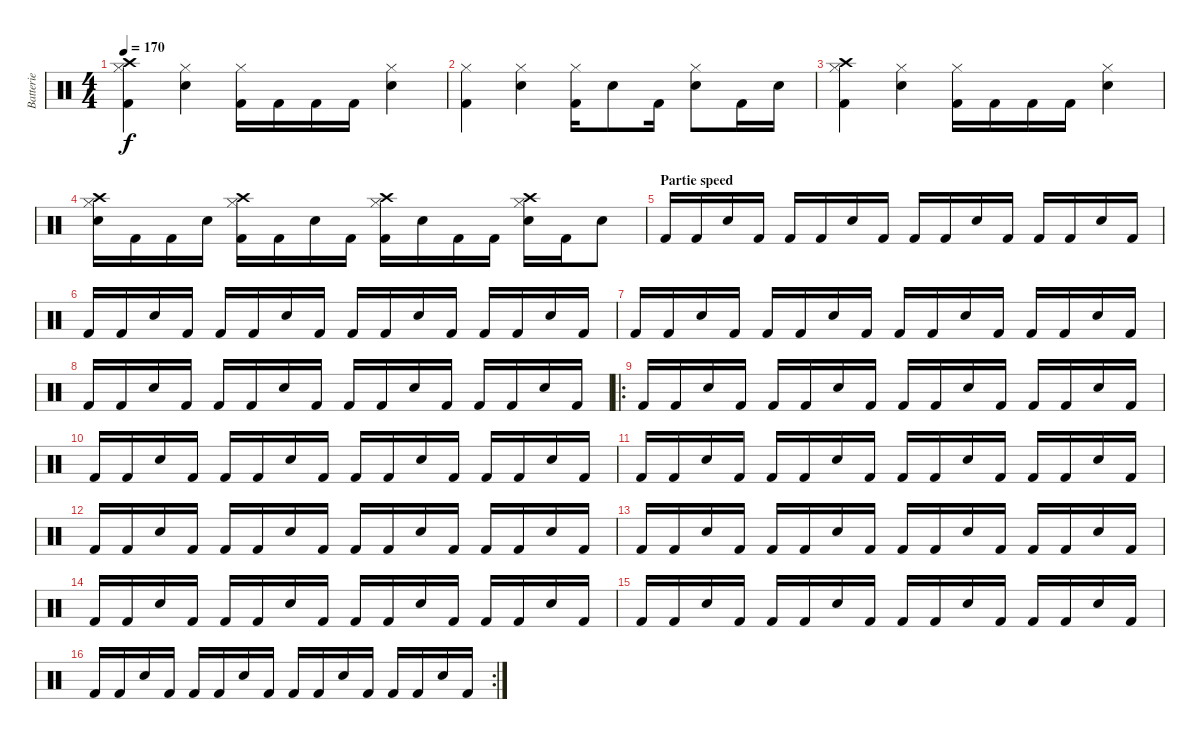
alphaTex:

\track ("Batterie" "Batterie") {instrument percussion}
\staff {score}
\articulation defaults
\ts (4 4)
\tempo 170
\clef neutral
\ks c
("Crash high (hit)" "Hi-Hat (closed)" "Kick (hit) 2").4{dy f} ("Hi-Hat (closed)" "Snare (hit) 2").4 ("Hi-Hat (closed)" "Kick (hit) 2").16 "Kick (hit) 2".16 "Kick (hit) 2".16 "Kick (hit) 2".16 ("Hi-Hat (closed)" "Snare (hit) 2").4 |
("Hi-Hat (closed)" "Kick (hit) 2").4 ("Hi-Hat (closed)" "Snare (hit) 2").4 ("Hi-Hat (closed)" "Kick (hit) 2").16 "Snare (hit) 2".8 "Kick (hit) 2".16 ("Hi-Hat (closed)" "Snare (hit) 2").8 "Kick (hit) 2".16 "Snare (hit) 2".16 |
("Crash high (hit)" "Hi-Hat (closed)" "Kick (hit) 2").4 ("Hi-Hat (closed)" "Snare (hit) 2").4 ("Hi-Hat (closed)" "Kick (hit) 2").16 "Kick (hit) 2".16 "Kick (hit) 2".16 "Kick (hit) 2".16 ("Hi-Hat (closed)" "Snare (hit) 2").4 |
("Crash high (hit)" "Hi-Hat (closed)" "Snare (hit) 2").16 "Kick (hit) 2".16 "Kick (hit) 2".16 "Snare (hit) 2".16 ("Crash high (hit)" "Hi-Hat (closed)" "Kick (hit) 2").16 "Kick (hit) 2".16 "Snare (hit) 2".16 "Kick (hit) 2".16 ("Crash high (hit)" "Hi-Hat (closed)" "Kick (hit) 2").16 "Snare (hit) 2".16 "Kick (hit) 2".16 "Kick (hit) 2".16 ("Crash high (hit)" "Hi-Hat (closed)" "Snare (hit) 2").16 "Kick (hit) 2".16 "Snare (hit) 2".8 |
\section ("" "Partie speed")
"Kick (hit) 2".16 "Kick (hit) 2".16 "Snare (hit) 2".16 "Kick (hit) 2".16 "Kick (hit) 2".16 "Kick (hit) 2".16 "Snare (hit) 2".16 "Kick (hit) 2".16 "Kick (hit) 2".16 "Kick (hit) 2".16 "Snare (hit) 2".16 "Kick (hit) 2".16 "Kick (hit) 2".16 "Kick (hit) 2".16 "Snare (hit) 2".16 "Kick (hit) 2".16 |
"Kick (hit) 2".16 "Kick (hit) 2".16 "Snare (hit) 2".16 "Kick (hit) 2".16 "Kick (hit) 2".16 "Kick (hit) 2".16 "Snare (hit) 2".16 "Kick (hit) 2".16 "Kick (hit) 2".16 "Kick (hit) 2".16 "Snare (hit) 2".16 "Kick (hit) 2".16 "Kick (hit) 2".16 "Kick (hit) 2".16 "Snare (hit) 2".16 "Kick (hit) 2".16 |
"Kick (hit) 2".16 "Kick (hit) 2".16 "Snare (hit) 2".16 "Kick (hit) 2".16 "Kick (hit) 2".16 "Kick (hit) 2".16 "Snare (hit) 2".16 "Kick (hit) 2".16 "Kick (hit) 2".16 "Kick (hit) 2".16 "Snare (hit) 2".16 "Kick (hit) 2".16 "Kick (hit) 2".16 "Kick (hit) 2".16 "Snare (hit) 2".16 "Kick (hit) 2".16 |
"Kick (hit) 2".16 "Kick (hit) 2".16 "Snare (hit) 2".16 "Kick (hit) 2".16 "Kick (hit) 2".16 "Kick (hit) 2".16 "Snare (hit) 2".16 "Kick (hit) 2".16 "Kick (hit) 2".16 "Kick (hit) 2".16 "Snare (hit) 2".16 "Kick (hit) 2".16 "Kick (hit) 2".16 "Kick (hit) 2".16 "Snare (hit) 2".16 "Kick (hit) 2".16 |
\ro "Kick (hit) 2".16 "Kick (hit) 2".16 "Snare (hit) 2".16 "Kick (hit) 2".16 "Kick (hit) 2".16 "Kick (hit) 2".16 "Snare (hit) 2".16 "Kick (hit) 2".16 "Kick (hit) 2".16 "Kick (hit) 2".16 "Snare (hit) 2".16 "Kick (hit) 2".16 "Kick (hit) 2".16 "Kick (hit) 2".16 "Snare (hit) 2".16 "Kick (hit) 2".16
|
"Kick (hit) 2".16 "Kick (hit) 2".16 "Snare (hit) 2".16 "Kick (hit) 2".16 "Kick (hit) 2".16 "Kick (hit) 2".16 "Snare (hit) 2".16 "Kick (hit) 2".16 "Kick (hit) 2".16 "Kick (hit) 2".16 "Snare (hit) 2".16 "Kick (hit) 2".16 "Kick (hit) 2".16 "Kick (hit) 2".16 "Snare (hit) 2".16 "Kick (hit) 2".16 |
"Kick (hit) 2".16 "Kick (hit) 2".16 "Snare (hit) 2".16 "Kick (hit) 2".16 "Kick (hit) 2".16 "Kick (hit) 2".16 "Snare (hit) 2".16 "Kick (hit) 2".16 "Kick (hit) 2".16 "Kick (hit) 2".16 "Snare (hit) 2".16 "Kick (hit) 2".16 "Kick (hit) 2".16 "Kick (hit) 2".16 "Snare (hit) 2".16 "Kick (hit) 2".16 |
"Kick (hit) 2".16 "Kick (hit) 2".16 "Snare (hit) 2".16 "Kick (hit) 2".16 "Kick (hit) 2".16 "Kick (hit) 2".16 "Snare (hit) 2".16 "Kick (hit) 2".16 "Kick (hit) 2".16 "Kick (hit) 2".16 "Snare (hit) 2".16 "Kick (hit) 2".16 "Kick (hit) 2".16 "Kick (hit) 2".16 "Snare (hit) 2".16 "Kick (hit) 2".16 |
"Kick (hit) 2".16 "Kick (hit) 2".16 "Snare (hit) 2".16 "Kick (hit) 2".16 "Kick (hit) 2".16 "Kick (hit) 2".16 "Snare (hit) 2".16 "Kick (hit) 2".16 "Kick (hit) 2".16 "Kick (hit) 2".16 "Snare (hit) 2".16 "Kick (hit) 2".16 "Kick (hit) 2".16 "Kick (hit) 2".16 "Snare (hit) 2".16 "Kick (hit) 2".16 |
"Kick (hit) 2".16 "Kick (hit) 2".16 "Snare (hit) 2".16 "Kick (hit) 2".16 "Kick (hit) 2".16 "Kick (hit) 2".16 "Snare (hit) 2".16 "Kick (hit) 2".16 "Kick (hit) 2".16 "Kick (hit) 2".16 "Snare (hit) 2".16 "Kick (hit) 2".16 "Kick (hit) 2".16 "Kick (hit) 2".16 "Snare (hit) 2".16 "Kick (hit) 2".16 |
"Kick (hit) 2".16 "Kick (hit) 2".16 "Snare (hit) 2".16 "Kick (hit) 2".16 "Kick (hit) 2".16 "Kick (hit) 2".16 "Snare (hit) 2".16 "Kick (hit) 2".16 "Kick (hit) 2".16 "Kick (hit) 2".16 "Snare (hit) 2".16 "Kick (hit) 2".16 "Kick (hit) 2".16 "Kick (hit) 2".16 "Snare (hit) 2".16 "Kick (hit) 2".16 |
\rc 2 "Kick (hit) 2".16 "Kick (hit) 2".16 "Snare (hit) 2".16 "Kick (hit) 2".16 "Kick (hit) 2".16 "Kick (hit) 2".16 "Snare (hit) 2".16 "Kick (hit) 2".16 "Kick (hit) 2".16 "Kick (hit) 2".16 "Snare (hit) 2".16 "Kick (hit) 2".16 "Kick (hit) 2".16 "Kick (hit) 2".16 "Snare (hit) 2".16 "Kick (hit) 2".16
